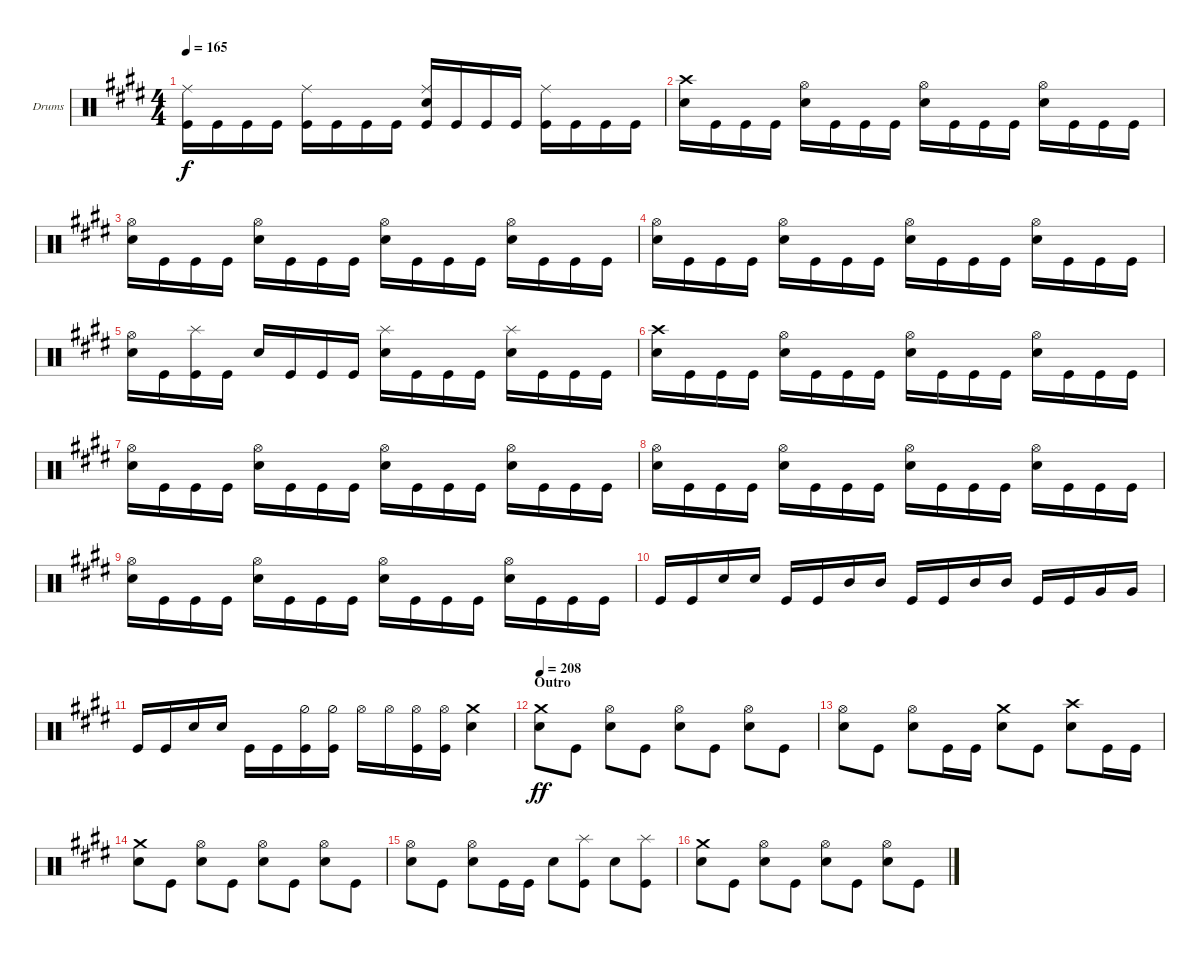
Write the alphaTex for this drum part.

\defaultSystemsLayout 4
\bracketExtendMode groupsimilarinstruments
\firstSystemTrackNameOrientation horizontal
\otherSystemsTrackNameOrientation horizontal
\track ("Corey Friedlander - Drums" "Drums") {instrument percussion}
\staff {score}
\articulation defaults
\ts (4 4)
\tempo 165
\clef neutral
\ks c#minor
("Kick (hit)" "Ride (middle)").16{dy f} "Kick (hit)".16 "Kick (hit)".16 "Kick (hit)".16 ("Kick (hit)" "Ride (middle)").16 "Kick (hit)".16 "Kick (hit)".16 "Kick (hit)".16 ("Kick (hit)" "Ride (middle)" "Snare (hit) 2").16 "Kick (hit)".16 "Kick (hit)".16 "Kick (hit)".16 ("Kick (hit)" "Ride (middle)").16 "Kick (hit)".16 "Kick (hit)".16 "Kick (hit)".16 |
("Snare (hit) 2" "Crash high (hit)").16 "Kick (hit)".16 "Kick (hit)".16 "Kick (hit)".16 ("Snare (hit) 2" "Hi-Hat (open)").16 "Kick (hit)".16 "Kick (hit)".16 "Kick (hit)".16 ("Snare (hit) 2" "Hi-Hat (open)").16 "Kick (hit)".16 "Kick (hit)".16 "Kick (hit)".16 ("Snare (hit) 2" "Hi-Hat (open)").16 "Kick (hit)".16 "Kick (hit)".16 "Kick (hit)".16 |
("Snare (hit) 2" "Hi-Hat (open)").16 "Kick (hit)".16 "Kick (hit)".16 "Kick (hit)".16 ("Snare (hit) 2" "Hi-Hat (open)").16 "Kick (hit)".16 "Kick (hit)".16 "Kick (hit)".16 ("Snare (hit) 2" "Hi-Hat (open)").16 "Kick (hit)".16 "Kick (hit)".16 "Kick (hit)".16 ("Snare (hit) 2" "Hi-Hat (open)").16 "Kick (hit)".16 "Kick (hit)".16 "Kick (hit)".16 |
("Snare (hit) 2" "Hi-Hat (open)").16 "Kick (hit)".16 "Kick (hit)".16 "Kick (hit)".16 ("Snare (hit) 2" "Hi-Hat (open)").16 "Kick (hit)".16 "Kick (hit)".16 "Kick (hit)".16 ("Snare (hit) 2" "Hi-Hat (open)").16 "Kick (hit)".16 "Kick (hit)".16 "Kick (hit)".16 ("Snare (hit) 2" "Hi-Hat (open)").16 "Kick (hit)".16 "Kick (hit)".16 "Kick (hit)".16 |
("Snare (hit) 2" "Hi-Hat (open)").16 "Kick (hit)".16 ("Kick (hit)" "Splash (hit)").16 "Kick (hit)".16 "Snare (hit) 2".16 "Kick (hit)".16 "Kick (hit)".16 "Kick (hit)".16 ("Snare (hit) 2" "Splash (hit)").16 "Kick (hit)".16 "Kick (hit)".16 "Kick (hit)".16 ("Snare (hit) 2" "Splash (hit)").16 "Kick (hit)".16 "Kick (hit)".16 "Kick (hit)".16 |
("Snare (hit) 2" "Crash high (hit)").16 "Kick (hit)".16 "Kick (hit)".16 "Kick (hit)".16 ("Snare (hit) 2" "Hi-Hat (open)").16 "Kick (hit)".16 "Kick (hit)".16 "Kick (hit)".16 ("Snare (hit) 2" "Hi-Hat (open)").16 "Kick (hit)".16 "Kick (hit)".16 "Kick (hit)".16 ("Snare (hit) 2" "Hi-Hat (open)").16 "Kick (hit)".16 "Kick (hit)".16 "Kick (hit)".16 |
("Snare (hit) 2" "Hi-Hat (open)").16 "Kick (hit)".16 "Kick (hit)".16 "Kick (hit)".16 ("Snare (hit) 2" "Hi-Hat (open)").16 "Kick (hit)".16 "Kick (hit)".16 "Kick (hit)".16 ("Snare (hit) 2" "Hi-Hat (open)").16 "Kick (hit)".16 "Kick (hit)".16 "Kick (hit)".16 ("Snare (hit) 2" "Hi-Hat (open)").16 "Kick (hit)".16 "Kick (hit)".16 "Kick (hit)".16 |
("Snare (hit) 2" "Hi-Hat (open)").16 "Kick (hit)".16 "Kick (hit)".16 "Kick (hit)".16 ("Snare (hit) 2" "Hi-Hat (open)").16 "Kick (hit)".16 "Kick (hit)".16 "Kick (hit)".16 ("Snare (hit) 2" "Hi-Hat (open)").16 "Kick (hit)".16 "Kick (hit)".16 "Kick (hit)".16 ("Snare (hit) 2" "Hi-Hat (open)").16 "Kick (hit)".16 "Kick (hit)".16 "Kick (hit)".16 |
("Snare (hit) 2" "Hi-Hat (open)").16 "Kick (hit)".16 "Kick (hit)".16 "Kick (hit)".16 ("Snare (hit) 2" "Hi-Hat (open)").16 "Kick (hit)".16 "Kick (hit)".16 "Kick (hit)".16 ("Snare (hit) 2" "Hi-Hat (open)").16 "Kick (hit)".16 "Kick (hit)".16 "Kick (hit)".16 ("Snare (hit) 2" "Hi-Hat (open)").16 "Kick (hit)".16 "Kick (hit)".16 "Kick (hit)".16 |
"Kick (hit)".16 "Kick (hit)".16 "Snare (hit) 2".16 "Snare (hit) 2".16 "Kick (hit)".16 "Kick (hit)".16 "Mid Tom (hit)".16 "Mid Tom (hit)".16 "Kick (hit)".16 "Kick (hit)".16 "Mid Tom (hit)".16 "Mid Tom (hit)".16 "Kick (hit)".16 "Kick (hit)".16 "Very Low Tom (hit)".16 "Very Low Tom (hit)".16 |
"Kick (hit)".16 "Kick (hit)".16 "Snare (hit) 2".16 "Snare (hit) 2".16 "Kick (hit)".16 "Kick (hit)".16 ("Kick (hit)" "Hi-Hat (half)").16 ("Kick (hit)" "Hi-Hat (half)").16 "Hi-Hat (open)".16 "Hi-Hat (open)".16 ("Kick (hit)" "Hi-Hat (open)").16 ("Kick (hit)" "Hi-Hat (open)").16 ("Snare (hit) 2" "Crash medium (hit)").4 |
\section ("" "Outro")
\tempo 208
("Snare (hit) 2" "Crash medium (hit)").8{dy ff} "Kick (hit)".8 ("Snare (hit) 2" "Hi-Hat (open)").8 "Kick (hit)".8 ("Snare (hit) 2" "Hi-Hat (open)").8 "Kick (hit)".8 ("Snare (hit) 2" "Hi-Hat (open)").8 "Kick (hit)".8 |
("Snare (hit) 2" "Hi-Hat (open)").8 "Kick (hit)".8 ("Snare (hit) 2" "Hi-Hat (open)").8 "Kick (hit)".16 "Kick (hit)".16 ("Snare (hit) 2" "Crash medium (hit)").8 "Kick (hit)".8 ("Snare (hit) 2" "Crash high (hit)").8 "Kick (hit)".16 "Kick (hit)".16 |
("Snare (hit) 2" "Crash medium (hit)").8 "Kick (hit)".8 ("Snare (hit) 2" "Hi-Hat (open)").8 "Kick (hit)".8 ("Snare (hit) 2" "Hi-Hat (open)").8 "Kick (hit)".8 ("Snare (hit) 2" "Hi-Hat (open)").8 "Kick (hit)".8 |
("Snare (hit) 2" "Hi-Hat (open)").8 "Kick (hit)".8 ("Snare (hit) 2" "Hi-Hat (open)").8 "Kick (hit)".16 "Kick (hit)".16 "Snare (hit) 2".8 ("Kick (hit)" "Splash (hit)").8 "Snare (hit) 2".8 ("Kick (hit)" "Splash (hit)").8 |
("Snare (hit) 2" "Crash medium (hit)").8 "Kick (hit)".8 ("Snare (hit) 2" "Hi-Hat (open)").8 "Kick (hit)".8 ("Snare (hit) 2" "Hi-Hat (open)").8 "Kick (hit)".8 ("Snare (hit) 2" "Hi-Hat (open)").8 "Kick (hit)".8
